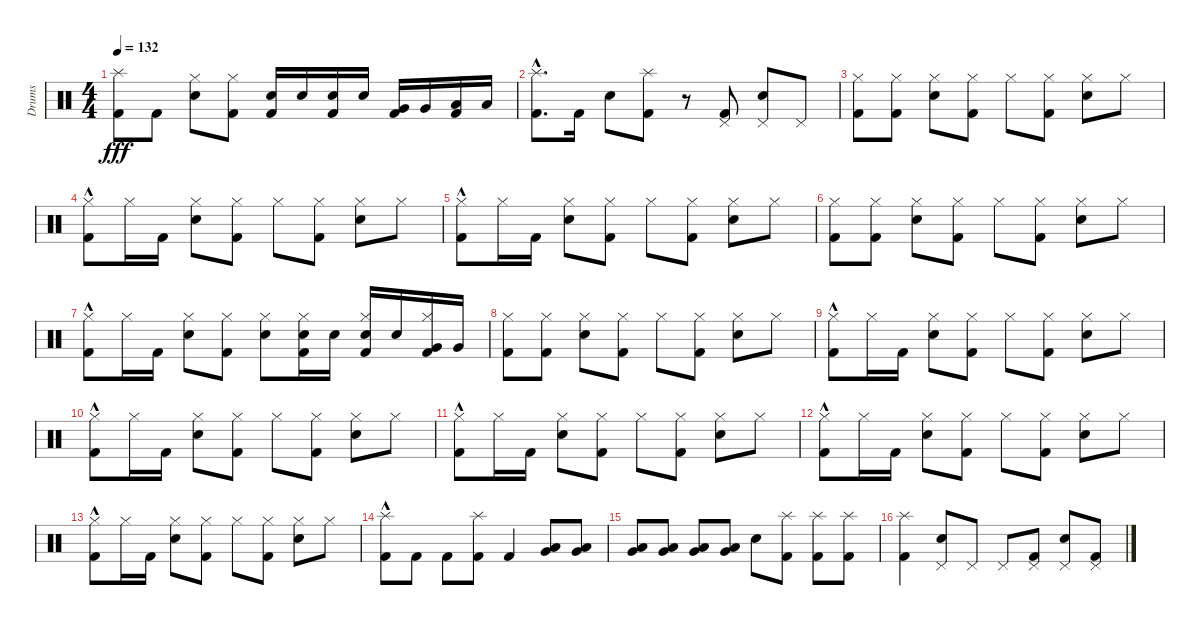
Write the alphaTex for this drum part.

\track ("Drums" "Drums") {instrument percussion}
\staff {score}
\articulation defaults
\ts (4 4)
\tempo 132
\clef neutral
\ks c
("Splash (hit)" "Kick (hit) 2").8{dy fff} "Kick (hit) 2".8 ("Hi-Hat (closed)" "Electric Snare (hit)").8 ("Hi-Hat (closed)" "Kick (hit) 2").8 ("Kick (hit) 2" "Electric Snare (hit)").16 "Electric Snare (hit)".16 ("Kick (hit) 2" "Electric Snare (hit)").16 "Electric Snare (hit)".16 ("Very Low Tom (hit)" "Kick (hit) 2").16 "Very Low Tom (hit)".16 ("Low Floor Tom (hit)" "Kick (hit) 2").16 "Low Floor Tom (hit)".16 |
("Kick (hit) 2"{hac} "Splash (hit)"{hac}).8{d} "Kick (hit) 2".16 "Electric Snare (hit)".8 ("Splash (hit)" "Kick (hit) 2").8 r.8 ("Kick (hit) 2" "Pedal Hi-Hat (hit)").8 ("Electric Snare (hit)" "Pedal Hi-Hat (hit)").8 "Pedal Hi-Hat (hit)".8 |
("Hi-Hat (closed)" "Kick (hit) 2").8 ("Hi-Hat (closed)" "Kick (hit) 2").8 ("Hi-Hat (closed)" "Electric Snare (hit)").8 ("Hi-Hat (closed)" "Kick (hit) 2").8 "Hi-Hat (closed)".8 ("Hi-Hat (closed)" "Kick (hit) 2").8 ("Hi-Hat (closed)" "Electric Snare (hit)").8 "Hi-Hat (closed)".8 |
("Hi-Hat (closed)" "Kick (hit) 2"{hac}).8 "Hi-Hat (closed)".16 "Kick (hit) 2".16 ("Hi-Hat (closed)" "Electric Snare (hit)").8 ("Hi-Hat (closed)" "Kick (hit) 2").8 "Hi-Hat (closed)".8 ("Hi-Hat (closed)" "Kick (hit) 2").8 ("Hi-Hat (closed)" "Electric Snare (hit)").8 "Hi-Hat (closed)".8 |
("Kick (hit) 2"{hac} "Hi-Hat (closed)").8 "Hi-Hat (closed)".16 "Kick (hit) 2".16 ("Electric Snare (hit)" "Hi-Hat (closed)").8 ("Kick (hit) 2" "Hi-Hat (closed)").8 "Hi-Hat (closed)".8 ("Kick (hit) 2" "Hi-Hat (closed)").8 ("Electric Snare (hit)" "Hi-Hat (closed)").8 "Hi-Hat (closed)".8 |
("Kick (hit) 2" "Hi-Hat (closed)").8 ("Kick (hit) 2" "Hi-Hat (closed)").8 ("Electric Snare (hit)" "Hi-Hat (closed)").8 ("Kick (hit) 2" "Hi-Hat (closed)").8 "Hi-Hat (closed)".8 ("Kick (hit) 2" "Hi-Hat (closed)").8 ("Electric Snare (hit)" "Hi-Hat (closed)").8 "Hi-Hat (closed)".8 |
("Kick (hit) 2"{hac} "Hi-Hat (closed)").8 "Hi-Hat (closed)".16 "Kick (hit) 2".16 ("Electric Snare (hit)" "Hi-Hat (closed)").8 ("Kick (hit) 2" "Hi-Hat (closed)").8 ("Electric Snare (hit)" "Hi-Hat (closed)").8 ("Kick (hit) 2" "Electric Snare (hit)" "Hi-Hat (closed)").16 "Electric Snare (hit)".16 ("Hi-Hat (closed)" "Kick (hit) 2" "Electric Snare (hit)").16 "Electric Snare (hit)".16 ("Hi-Hat (closed)" "Kick (hit) 2" "Very Low Tom (hit)").16 "Very Low Tom (hit)".16 |
("Hi-Hat (closed)" "Kick (hit) 2").8 ("Hi-Hat (closed)" "Kick (hit) 2").8 ("Hi-Hat (closed)" "Electric Snare (hit)").8 ("Hi-Hat (closed)" "Kick (hit) 2").8 "Hi-Hat (closed)".8 ("Hi-Hat (closed)" "Kick (hit) 2").8 ("Hi-Hat (closed)" "Electric Snare (hit)").8 "Hi-Hat (closed)".8 |
("Hi-Hat (closed)" "Kick (hit) 2"{hac}).8 "Hi-Hat (closed)".16 "Kick (hit) 2".16 ("Hi-Hat (closed)" "Electric Snare (hit)").8 ("Hi-Hat (closed)" "Kick (hit) 2").8 "Hi-Hat (closed)".8 ("Kick (hit) 2" "Hi-Hat (closed)").8 ("Hi-Hat (closed)" "Electric Snare (hit)").8 "Hi-Hat (closed)".8 |
("Hi-Hat (closed)" "Kick (hit) 2"{hac}).8 "Hi-Hat (closed)".16 "Kick (hit) 2".16 ("Hi-Hat (closed)" "Electric Snare (hit)").8 ("Hi-Hat (closed)" "Kick (hit) 2").8 "Hi-Hat (closed)".8 ("Kick (hit) 2" "Hi-Hat (closed)").8 ("Hi-Hat (closed)" "Electric Snare (hit)").8 "Hi-Hat (closed)".8 |
("Hi-Hat (closed)" "Kick (hit) 2"{hac}).8 "Hi-Hat (closed)".16 "Kick (hit) 2".16 ("Hi-Hat (closed)" "Electric Snare (hit)").8 ("Hi-Hat (closed)" "Kick (hit) 2").8 "Hi-Hat (closed)".8 ("Kick (hit) 2" "Hi-Hat (closed)").8 ("Hi-Hat (closed)" "Electric Snare (hit)").8 "Hi-Hat (closed)".8 |
("Hi-Hat (closed)" "Kick (hit) 2"{hac}).8 "Hi-Hat (closed)".16 "Kick (hit) 2".16 ("Hi-Hat (closed)" "Electric Snare (hit)").8 ("Hi-Hat (closed)" "Kick (hit) 2").8 "Hi-Hat (closed)".8 ("Kick (hit) 2" "Hi-Hat (closed)").8 ("Hi-Hat (closed)" "Electric Snare (hit)").8 "Hi-Hat (closed)".8 |
("Hi-Hat (closed)" "Kick (hit) 2"{hac}).8 "Hi-Hat (closed)".16 "Kick (hit) 2".16 ("Hi-Hat (closed)" "Electric Snare (hit)").8 ("Hi-Hat (closed)" "Kick (hit) 2").8 "Hi-Hat (closed)".8 ("Kick (hit) 2" "Hi-Hat (closed)").8 ("Hi-Hat (closed)" "Electric Snare (hit)").8 "Hi-Hat (closed)".8 |
("Splash (hit)"{hac} "Kick (hit) 2").8 "Kick (hit) 2".8 "Kick (hit) 2".8 ("Splash (hit)" "Kick (hit) 2").8 "Kick (hit) 2".4 ("Low Floor Tom (hit)" "Very Low Tom (hit)").8 ("Low Floor Tom (hit)" "Very Low Tom (hit)").8 |
("Low Floor Tom (hit)" "Very Low Tom (hit)").8 ("Low Floor Tom (hit)" "Very Low Tom (hit)").8 ("Low Floor Tom (hit)" "Very Low Tom (hit)").8 ("Low Floor Tom (hit)" "Very Low Tom (hit)").8 "Electric Snare (hit)".8 ("Splash (hit)" "Kick (hit) 2").8 ("Splash (hit)" "Kick (hit) 2").8 ("Splash (hit)" "Kick (hit) 2").8 |
("Kick (hit) 2" "Splash (hit)").4 ("Electric Snare (hit)" "Pedal Hi-Hat (hit)").8 "Pedal Hi-Hat (hit)".8 "Pedal Hi-Hat (hit)".8 ("Kick (hit) 2" "Pedal Hi-Hat (hit)").8 ("Electric Snare (hit)" "Pedal Hi-Hat (hit)").8 ("Pedal Hi-Hat (hit)" "Kick (hit) 2").8
